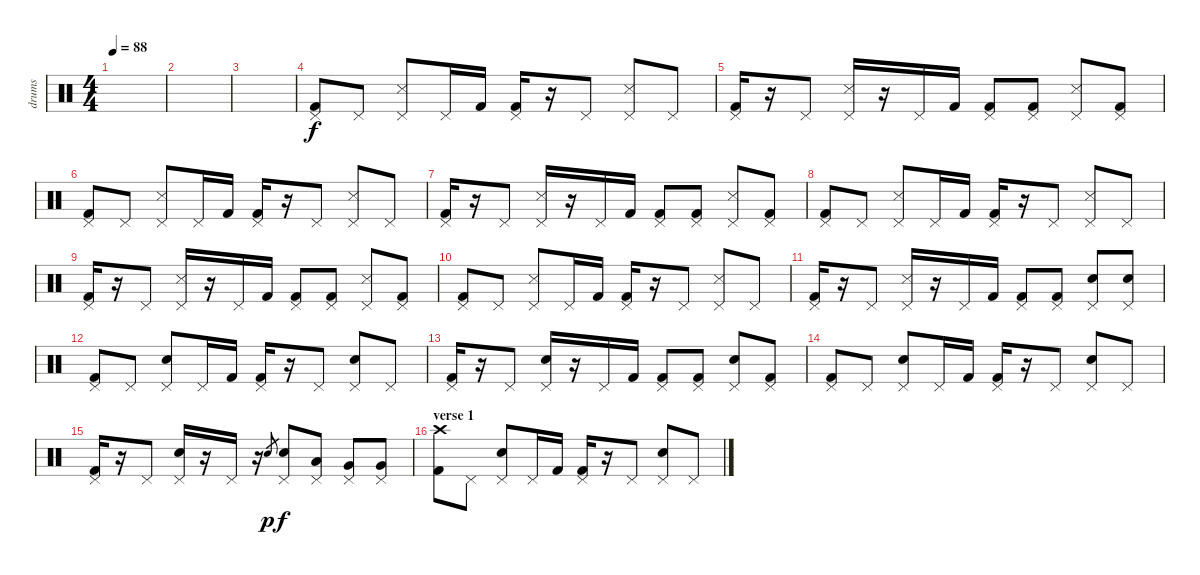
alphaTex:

\track ("drums" "drums") {instrument percussion}
\staff {score}
\articulation defaults
\ts (4 4)
\tempo 88
\clef neutral
\ks c
|
|
|
("Kick (hit) 2" "Pedal Hi-Hat (hit)").8 "Pedal Hi-Hat (hit)".8 ("Snare (side stick) 3" "Pedal Hi-Hat (hit)").8 "Pedal Hi-Hat (hit)".16 "Kick (hit) 2".16 ("Kick (hit) 2" "Pedal Hi-Hat (hit)").16 r.16 "Pedal Hi-Hat (hit)".8 ("Snare (side stick) 3" "Pedal Hi-Hat (hit)").8 "Pedal Hi-Hat (hit)".8 |
("Kick (hit) 2" "Pedal Hi-Hat (hit)").16 r.16 "Pedal Hi-Hat (hit)".8 ("Snare (side stick) 3" "Pedal Hi-Hat (hit)").16 r.16 "Pedal Hi-Hat (hit)".16 "Kick (hit) 2".16 ("Kick (hit) 2" "Pedal Hi-Hat (hit)").8 ("Kick (hit) 2" "Pedal Hi-Hat (hit)").8 ("Snare (side stick) 3" "Pedal Hi-Hat (hit)").8 ("Kick (hit) 2" "Pedal Hi-Hat (hit)").8 |
("Kick (hit) 2" "Pedal Hi-Hat (hit)").8 "Pedal Hi-Hat (hit)".8 ("Snare (side stick) 3" "Pedal Hi-Hat (hit)").8 "Pedal Hi-Hat (hit)".16 "Kick (hit) 2".16 ("Kick (hit) 2" "Pedal Hi-Hat (hit)").16 r.16 "Pedal Hi-Hat (hit)".8 ("Snare (side stick) 3" "Pedal Hi-Hat (hit)").8 "Pedal Hi-Hat (hit)".8 |
("Kick (hit) 2" "Pedal Hi-Hat (hit)").16 r.16 "Pedal Hi-Hat (hit)".8 ("Snare (side stick) 3" "Pedal Hi-Hat (hit)").16 r.16 "Pedal Hi-Hat (hit)".16 "Kick (hit) 2".16 ("Kick (hit) 2" "Pedal Hi-Hat (hit)").8 ("Kick (hit) 2" "Pedal Hi-Hat (hit)").8 ("Snare (side stick) 3" "Pedal Hi-Hat (hit)").8 ("Kick (hit) 2" "Pedal Hi-Hat (hit)").8 |
("Kick (hit) 2" "Pedal Hi-Hat (hit)").8 "Pedal Hi-Hat (hit)".8 ("Snare (side stick) 3" "Pedal Hi-Hat (hit)").8 "Pedal Hi-Hat (hit)".16 "Kick (hit) 2".16 ("Kick (hit) 2" "Pedal Hi-Hat (hit)").16 r.16 "Pedal Hi-Hat (hit)".8 ("Snare (side stick) 3" "Pedal Hi-Hat (hit)").8 "Pedal Hi-Hat (hit)".8 |
("Kick (hit) 2" "Pedal Hi-Hat (hit)").16 r.16 "Pedal Hi-Hat (hit)".8 ("Snare (side stick) 3" "Pedal Hi-Hat (hit)").16 r.16 "Pedal Hi-Hat (hit)".16 "Kick (hit) 2".16 ("Kick (hit) 2" "Pedal Hi-Hat (hit)").8 ("Kick (hit) 2" "Pedal Hi-Hat (hit)").8 ("Snare (side stick) 3" "Pedal Hi-Hat (hit)").8 ("Kick (hit) 2" "Pedal Hi-Hat (hit)").8 |
("Kick (hit) 2" "Pedal Hi-Hat (hit)").8 "Pedal Hi-Hat (hit)".8 ("Snare (side stick) 3" "Pedal Hi-Hat (hit)").8 "Pedal Hi-Hat (hit)".16 "Kick (hit) 2".16 ("Kick (hit) 2" "Pedal Hi-Hat (hit)").16 r.16 "Pedal Hi-Hat (hit)".8 ("Snare (side stick) 3" "Pedal Hi-Hat (hit)").8 "Pedal Hi-Hat (hit)".8 |
("Kick (hit) 2" "Pedal Hi-Hat (hit)").16 r.16 "Pedal Hi-Hat (hit)".8 ("Snare (side stick) 3" "Pedal Hi-Hat (hit)").16 r.16 "Pedal Hi-Hat (hit)".16 "Kick (hit) 2".16 ("Kick (hit) 2" "Pedal Hi-Hat (hit)").8 ("Kick (hit) 2" "Pedal Hi-Hat (hit)").8 ("Electric Snare (hit)" "Pedal Hi-Hat (hit)").8{volume 16} ("Electric Snare (hit)" "Pedal Hi-Hat (hit)").8 |
("Kick (hit) 2" "Pedal Hi-Hat (hit)").8 "Pedal Hi-Hat (hit)".8 ("Electric Snare (hit)" "Pedal Hi-Hat (hit)").8 "Pedal Hi-Hat (hit)".16 "Kick (hit) 2".16 ("Kick (hit) 2" "Pedal Hi-Hat (hit)").16 r.16 "Pedal Hi-Hat (hit)".8 ("Electric Snare (hit)" "Pedal Hi-Hat (hit)").8 "Pedal Hi-Hat (hit)".8 |
("Kick (hit) 2" "Pedal Hi-Hat (hit)").16 r.16 "Pedal Hi-Hat (hit)".8 ("Electric Snare (hit)" "Pedal Hi-Hat (hit)").16 r.16 "Pedal Hi-Hat (hit)".16 "Kick (hit) 2".16 ("Kick (hit) 2" "Pedal Hi-Hat (hit)").8 ("Kick (hit) 2" "Pedal Hi-Hat (hit)").8 ("Electric Snare (hit)" "Pedal Hi-Hat (hit)").8 ("Kick (hit) 2" "Pedal Hi-Hat (hit)").8 |
("Kick (hit) 2" "Pedal Hi-Hat (hit)").8 "Pedal Hi-Hat (hit)".8 ("Electric Snare (hit)" "Pedal Hi-Hat (hit)").8 "Pedal Hi-Hat (hit)".16 "Kick (hit) 2".16 ("Kick (hit) 2" "Pedal Hi-Hat (hit)").16 r.16 "Pedal Hi-Hat (hit)".8 ("Electric Snare (hit)" "Pedal Hi-Hat (hit)").8 "Pedal Hi-Hat (hit)".8 |
("Kick (hit) 2" "Pedal Hi-Hat (hit)").16 r.16 "Pedal Hi-Hat (hit)".8 ("Electric Snare (hit)" "Pedal Hi-Hat (hit)").16 r.16 "Pedal Hi-Hat (hit)".16 r.16 "Electric Snare (hit)".8{gr dy p} ("Electric Snare (hit)" "Pedal Hi-Hat (hit)").8{dy f} ("Low Tom (hit)" "Pedal Hi-Hat (hit)").8 ("Very Low Tom (hit)" "Pedal Hi-Hat (hit)").8 ("Very Low Tom (hit)" "Pedal Hi-Hat (hit)").8 |
\section ("" "verse 1")
("Kick (hit) 2" "Crash high (hit)").8 "Pedal Hi-Hat (hit)".8 ("Electric Snare (hit)" "Pedal Hi-Hat (hit)").8 "Pedal Hi-Hat (hit)".16 "Kick (hit) 2".16 ("Kick (hit) 2" "Pedal Hi-Hat (hit)").16 r.16 "Pedal Hi-Hat (hit)".8 ("Electric Snare (hit)" "Pedal Hi-Hat (hit)").8 "Pedal Hi-Hat (hit)".8
